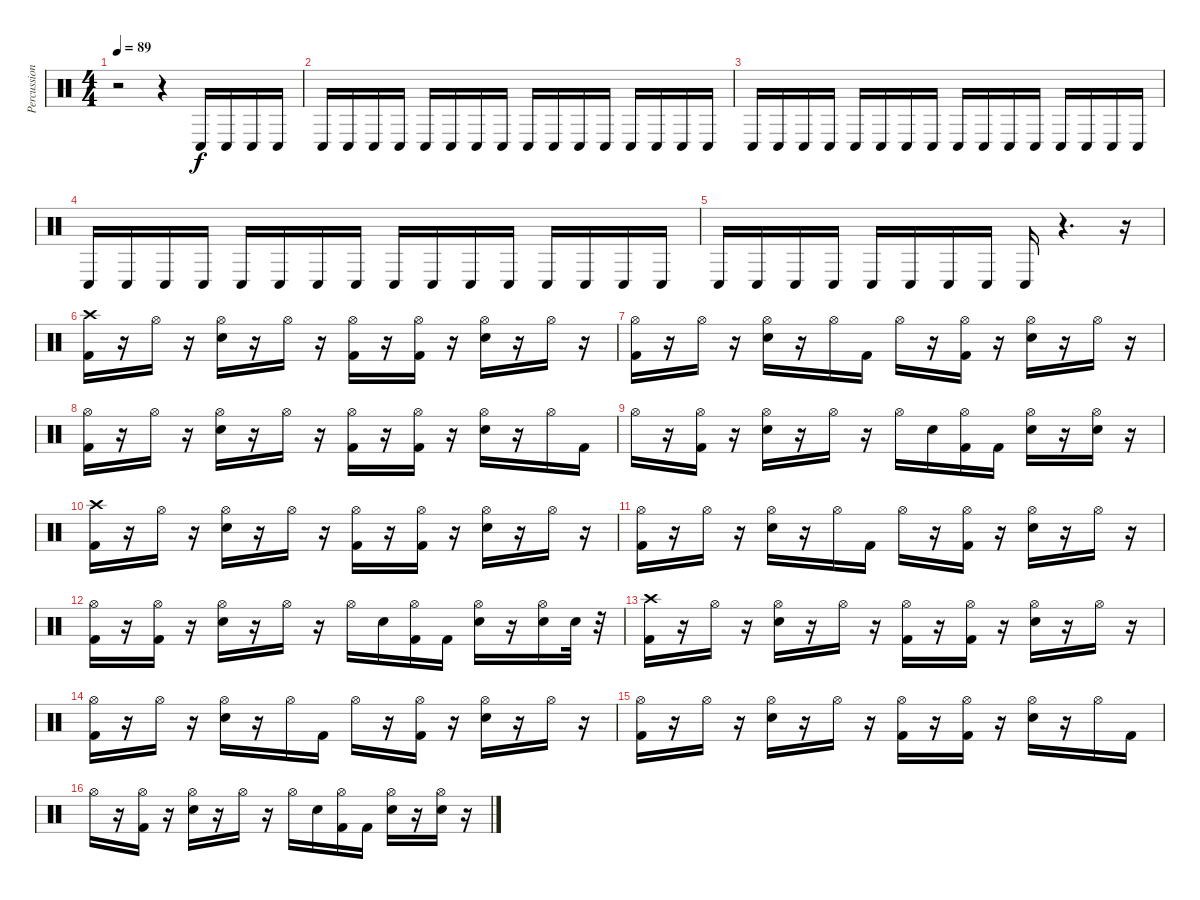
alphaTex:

\track ("Percussion" "Percussion") {instrument percussion}
\staff {score}
\articulation defaults
\ts (4 4)
\tempo 89
\clef neutral
\ks c
r.2{dy f volume 4} r.4 "Conga low (hit)".16{volume 4} "Conga low (hit)".16 "Conga low (hit)".16 "Conga low (hit)".16 |
"Conga low (hit)".16{volume 13} "Conga low (hit)".16 "Conga low (hit)".16 "Conga low (hit)".16 "Conga low (hit)".16 "Conga low (hit)".16 "Conga low (hit)".16 "Conga low (hit)".16 "Conga low (hit)".16 "Conga low (hit)".16 "Conga low (hit)".16 "Conga low (hit)".16 "Conga low (hit)".16 "Conga low (hit)".16 "Conga low (hit)".16 "Conga low (hit)".16 |
"Conga low (hit)".16 "Conga low (hit)".16 "Conga low (hit)".16 "Conga low (hit)".16 "Conga low (hit)".16 "Conga low (hit)".16 "Conga low (hit)".16 "Conga low (hit)".16 "Conga low (hit)".16 "Conga low (hit)".16 "Conga low (hit)".16 "Conga low (hit)".16 "Conga low (hit)".16 "Conga low (hit)".16 "Conga low (hit)".16 "Conga low (hit)".16 |
"Conga low (hit)".16 "Conga low (hit)".16 "Conga low (hit)".16 "Conga low (hit)".16 "Conga low (hit)".16 "Conga low (hit)".16 "Conga low (hit)".16 "Conga low (hit)".16 "Conga low (hit)".16 "Conga low (hit)".16 "Conga low (hit)".16 "Conga low (hit)".16 "Conga low (hit)".16 "Conga low (hit)".16 "Conga low (hit)".16 "Conga low (hit)".16 |
"Conga low (hit)".16 "Conga low (hit)".16 "Conga low (hit)".16 "Conga low (hit)".16 "Conga low (hit)".16 "Conga low (hit)".16 "Conga low (hit)".16 "Conga low (hit)".16 "Conga low (hit)".16{volume 13} r.4{d} r.16 |
("Kick (hit) 2" "Crash high (hit)").16 r.16 "Hi-Hat (open)".16 r.16 ("Snare (hit) 2" "Hi-Hat (open)").16 r.16 "Hi-Hat (open)".16 r.16 ("Kick (hit) 2" "Hi-Hat (open)").16 r.16 ("Kick (hit) 2" "Hi-Hat (open)").16 r.16 ("Snare (hit) 2" "Hi-Hat (open)").16 r.16 "Hi-Hat (open)".16 r.16 |
("Kick (hit) 2" "Hi-Hat (open)").16 r.16 "Hi-Hat (open)".16 r.16 ("Snare (hit) 2" "Hi-Hat (open)").16 r.16 "Hi-Hat (open)".16 "Kick (hit) 2".16 "Hi-Hat (open)".16 r.16 ("Kick (hit) 2" "Hi-Hat (open)").16 r.16 ("Snare (hit) 2" "Hi-Hat (open)").16 r.16 "Hi-Hat (open)".16 r.16 |
("Kick (hit) 2" "Hi-Hat (open)").16 r.16 "Hi-Hat (open)".16 r.16 ("Snare (hit) 2" "Hi-Hat (open)").16 r.16 "Hi-Hat (open)".16 r.16 ("Kick (hit) 2" "Hi-Hat (open)").16 r.16 ("Kick (hit) 2" "Hi-Hat (open)").16 r.16 ("Snare (hit) 2" "Hi-Hat (open)").16 r.16 "Hi-Hat (open)".16 "Kick (hit) 2".16 |
"Hi-Hat (open)".16 r.16 ("Kick (hit) 2" "Hi-Hat (open)").16 r.16 ("Snare (hit) 2" "Hi-Hat (open)").16 r.16 "Hi-Hat (open)".16 r.16 "Hi-Hat (open)".16 "Snare (hit) 2".16 ("Kick (hit) 2" "Hi-Hat (open)").16 "Kick (hit) 2".16 ("Snare (hit) 2" "Hi-Hat (open)").16 r.16 ("Snare (hit) 2" "Hi-Hat (open)").16 r.16 |
("Kick (hit) 2" "Crash high (hit)").16 r.16 "Hi-Hat (open)".16 r.16 ("Snare (hit) 2" "Hi-Hat (open)").16 r.16 "Hi-Hat (open)".16 r.16 ("Kick (hit) 2" "Hi-Hat (open)").16 r.16 ("Kick (hit) 2" "Hi-Hat (open)").16 r.16 ("Snare (hit) 2" "Hi-Hat (open)").16 r.16 "Hi-Hat (open)".16 r.16 |
("Kick (hit) 2" "Hi-Hat (open)").16 r.16 "Hi-Hat (open)".16 r.16 ("Snare (hit) 2" "Hi-Hat (open)").16 r.16 "Hi-Hat (open)".16 "Kick (hit) 2".16 "Hi-Hat (open)".16 r.16 ("Kick (hit) 2" "Hi-Hat (open)").16 r.16 ("Snare (hit) 2" "Hi-Hat (open)").16 r.16 "Hi-Hat (open)".16 r.16 |
("Kick (hit) 2" "Hi-Hat (open)").16 r.16 ("Kick (hit) 2" "Hi-Hat (open)").16 r.16 ("Snare (hit) 2" "Hi-Hat (open)").16 r.16 "Hi-Hat (open)".16 r.16 "Hi-Hat (open)".16 "Snare (hit) 2".16 ("Kick (hit) 2" "Hi-Hat (open)").16 "Kick (hit) 2".16 ("Snare (hit) 2" "Hi-Hat (open)").16 r.16 ("Snare (hit) 2" "Hi-Hat (open)").16 "Snare (hit) 2".32 r.32 |
("Kick (hit) 2" "Crash high (hit)").16 r.16 "Hi-Hat (open)".16 r.16 ("Snare (hit) 2" "Hi-Hat (open)").16 r.16 "Hi-Hat (open)".16 r.16 ("Kick (hit) 2" "Hi-Hat (open)").16 r.16 ("Kick (hit) 2" "Hi-Hat (open)").16 r.16 ("Snare (hit) 2" "Hi-Hat (open)").16 r.16 "Hi-Hat (open)".16 r.16 |
("Kick (hit) 2" "Hi-Hat (open)").16 r.16 "Hi-Hat (open)".16 r.16 ("Snare (hit) 2" "Hi-Hat (open)").16 r.16 "Hi-Hat (open)".16 "Kick (hit) 2".16 "Hi-Hat (open)".16 r.16 ("Kick (hit) 2" "Hi-Hat (open)").16 r.16 ("Snare (hit) 2" "Hi-Hat (open)").16 r.16 "Hi-Hat (open)".16 r.16 |
("Kick (hit) 2" "Hi-Hat (open)").16 r.16 "Hi-Hat (open)".16 r.16 ("Snare (hit) 2" "Hi-Hat (open)").16 r.16 "Hi-Hat (open)".16 r.16 ("Kick (hit) 2" "Hi-Hat (open)").16 r.16 ("Kick (hit) 2" "Hi-Hat (open)").16 r.16 ("Snare (hit) 2" "Hi-Hat (open)").16 r.16 "Hi-Hat (open)".16 "Kick (hit) 2".16 |
"Hi-Hat (open)".16 r.16 ("Kick (hit) 2" "Hi-Hat (open)").16 r.16 ("Snare (hit) 2" "Hi-Hat (open)").16 r.16 "Hi-Hat (open)".16 r.16 "Hi-Hat (open)".16 "Snare (hit) 2".16 ("Kick (hit) 2" "Hi-Hat (open)").16 "Kick (hit) 2".16 ("Snare (hit) 2" "Hi-Hat (open)").16 r.16 ("Snare (hit) 2" "Hi-Hat (open)").16 r.16
